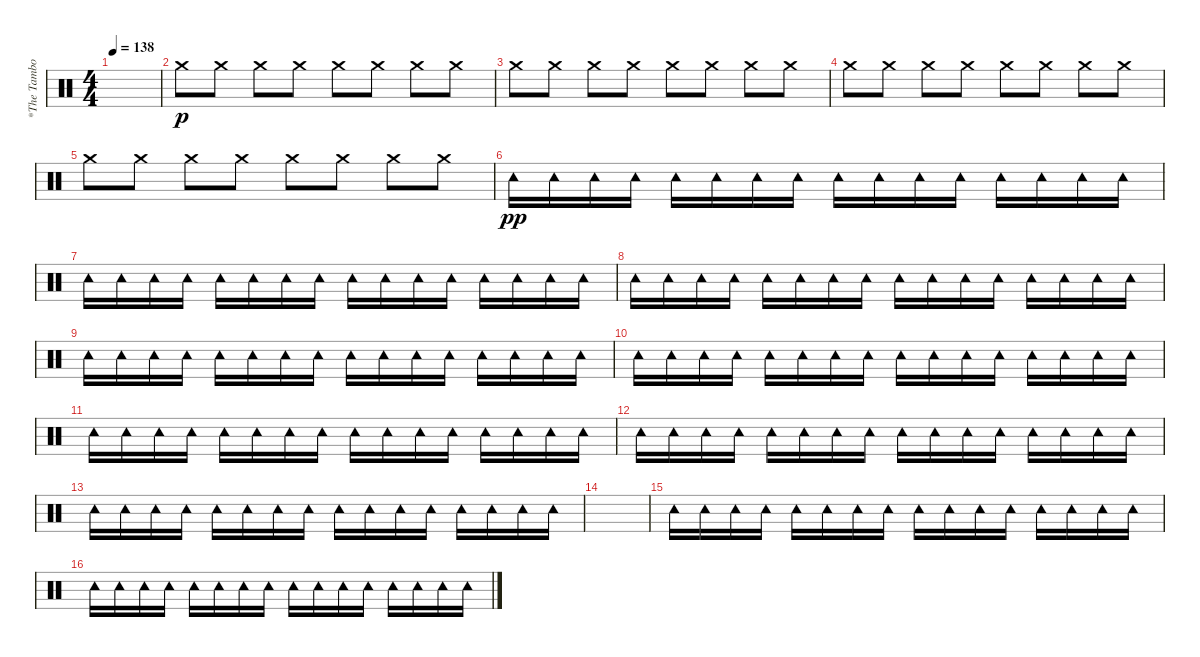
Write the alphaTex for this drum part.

\track ("*The Tambourine" "*The Tambo") {instrument percussion}
\staff {score}
\articulation defaults
\ts (4 4)
\tempo 138
\clef neutral
\ks c
|
"Crash medium (hit)".8{dy p} "Crash medium (hit)".8 "Crash medium (hit)".8 "Crash medium (hit)".8 "Crash medium (hit)".8 "Crash medium (hit)".8 "Crash medium (hit)".8 "Crash medium (hit)".8 |
"Crash medium (hit)".8 "Crash medium (hit)".8 "Crash medium (hit)".8 "Crash medium (hit)".8 "Crash medium (hit)".8 "Crash medium (hit)".8 "Crash medium (hit)".8 "Crash medium (hit)".8 |
"Crash medium (hit)".8 "Crash medium (hit)".8 "Crash medium (hit)".8 "Crash medium (hit)".8 "Crash medium (hit)".8 "Crash medium (hit)".8 "Crash medium (hit)".8 "Crash medium (hit)".8 |
"Crash medium (hit)".8 "Crash medium (hit)".8 "Crash medium (hit)".8 "Crash medium (hit)".8 "Crash medium (hit)".8 "Crash medium (hit)".8 "Crash medium (hit)".8 "Crash medium (hit)".8 |
"Tambourine (hit)".16{dy pp} "Tambourine (hit)".16 "Tambourine (hit)".16 "Tambourine (hit)".16 "Tambourine (hit)".16 "Tambourine (hit)".16 "Tambourine (hit)".16 "Tambourine (hit)".16 "Tambourine (hit)".16 "Tambourine (hit)".16 "Tambourine (hit)".16 "Tambourine (hit)".16 "Tambourine (hit)".16 "Tambourine (hit)".16 "Tambourine (hit)".16 "Tambourine (hit)".16 |
"Tambourine (hit)".16 "Tambourine (hit)".16 "Tambourine (hit)".16 "Tambourine (hit)".16 "Tambourine (hit)".16 "Tambourine (hit)".16 "Tambourine (hit)".16 "Tambourine (hit)".16 "Tambourine (hit)".16 "Tambourine (hit)".16 "Tambourine (hit)".16 "Tambourine (hit)".16 "Tambourine (hit)".16 "Tambourine (hit)".16 "Tambourine (hit)".16 "Tambourine (hit)".16 |
"Tambourine (hit)".16 "Tambourine (hit)".16 "Tambourine (hit)".16 "Tambourine (hit)".16 "Tambourine (hit)".16 "Tambourine (hit)".16 "Tambourine (hit)".16 "Tambourine (hit)".16 "Tambourine (hit)".16 "Tambourine (hit)".16 "Tambourine (hit)".16 "Tambourine (hit)".16 "Tambourine (hit)".16 "Tambourine (hit)".16 "Tambourine (hit)".16 "Tambourine (hit)".16 |
"Tambourine (hit)".16 "Tambourine (hit)".16 "Tambourine (hit)".16 "Tambourine (hit)".16 "Tambourine (hit)".16 "Tambourine (hit)".16 "Tambourine (hit)".16 "Tambourine (hit)".16 "Tambourine (hit)".16 "Tambourine (hit)".16 "Tambourine (hit)".16 "Tambourine (hit)".16 "Tambourine (hit)".16 "Tambourine (hit)".16 "Tambourine (hit)".16 "Tambourine (hit)".16 |
"Tambourine (hit)".16 "Tambourine (hit)".16 "Tambourine (hit)".16 "Tambourine (hit)".16 "Tambourine (hit)".16 "Tambourine (hit)".16 "Tambourine (hit)".16 "Tambourine (hit)".16 "Tambourine (hit)".16 "Tambourine (hit)".16 "Tambourine (hit)".16 "Tambourine (hit)".16 "Tambourine (hit)".16 "Tambourine (hit)".16 "Tambourine (hit)".16 "Tambourine (hit)".16 |
"Tambourine (hit)".16 "Tambourine (hit)".16 "Tambourine (hit)".16 "Tambourine (hit)".16 "Tambourine (hit)".16 "Tambourine (hit)".16 "Tambourine (hit)".16 "Tambourine (hit)".16 "Tambourine (hit)".16 "Tambourine (hit)".16 "Tambourine (hit)".16 "Tambourine (hit)".16 "Tambourine (hit)".16 "Tambourine (hit)".16 "Tambourine (hit)".16 "Tambourine (hit)".16 |
"Tambourine (hit)".16 "Tambourine (hit)".16 "Tambourine (hit)".16 "Tambourine (hit)".16 "Tambourine (hit)".16 "Tambourine (hit)".16 "Tambourine (hit)".16 "Tambourine (hit)".16 "Tambourine (hit)".16 "Tambourine (hit)".16 "Tambourine (hit)".16 "Tambourine (hit)".16 "Tambourine (hit)".16 "Tambourine (hit)".16 "Tambourine (hit)".16 "Tambourine (hit)".16 |
"Tambourine (hit)".16 "Tambourine (hit)".16 "Tambourine (hit)".16 "Tambourine (hit)".16 "Tambourine (hit)".16 "Tambourine (hit)".16 "Tambourine (hit)".16 "Tambourine (hit)".16 "Tambourine (hit)".16 "Tambourine (hit)".16 "Tambourine (hit)".16 "Tambourine (hit)".16 "Tambourine (hit)".16 "Tambourine (hit)".16 "Tambourine (hit)".16 "Tambourine (hit)".16 |
|
"Tambourine (hit)".16 "Tambourine (hit)".16 "Tambourine (hit)".16 "Tambourine (hit)".16 "Tambourine (hit)".16 "Tambourine (hit)".16 "Tambourine (hit)".16 "Tambourine (hit)".16 "Tambourine (hit)".16 "Tambourine (hit)".16 "Tambourine (hit)".16 "Tambourine (hit)".16 "Tambourine (hit)".16 "Tambourine (hit)".16 "Tambourine (hit)".16 "Tambourine (hit)".16 |
"Tambourine (hit)".16 "Tambourine (hit)".16 "Tambourine (hit)".16 "Tambourine (hit)".16 "Tambourine (hit)".16 "Tambourine (hit)".16 "Tambourine (hit)".16 "Tambourine (hit)".16 "Tambourine (hit)".16 "Tambourine (hit)".16 "Tambourine (hit)".16 "Tambourine (hit)".16 "Tambourine (hit)".16 "Tambourine (hit)".16 "Tambourine (hit)".16 "Tambourine (hit)".16
